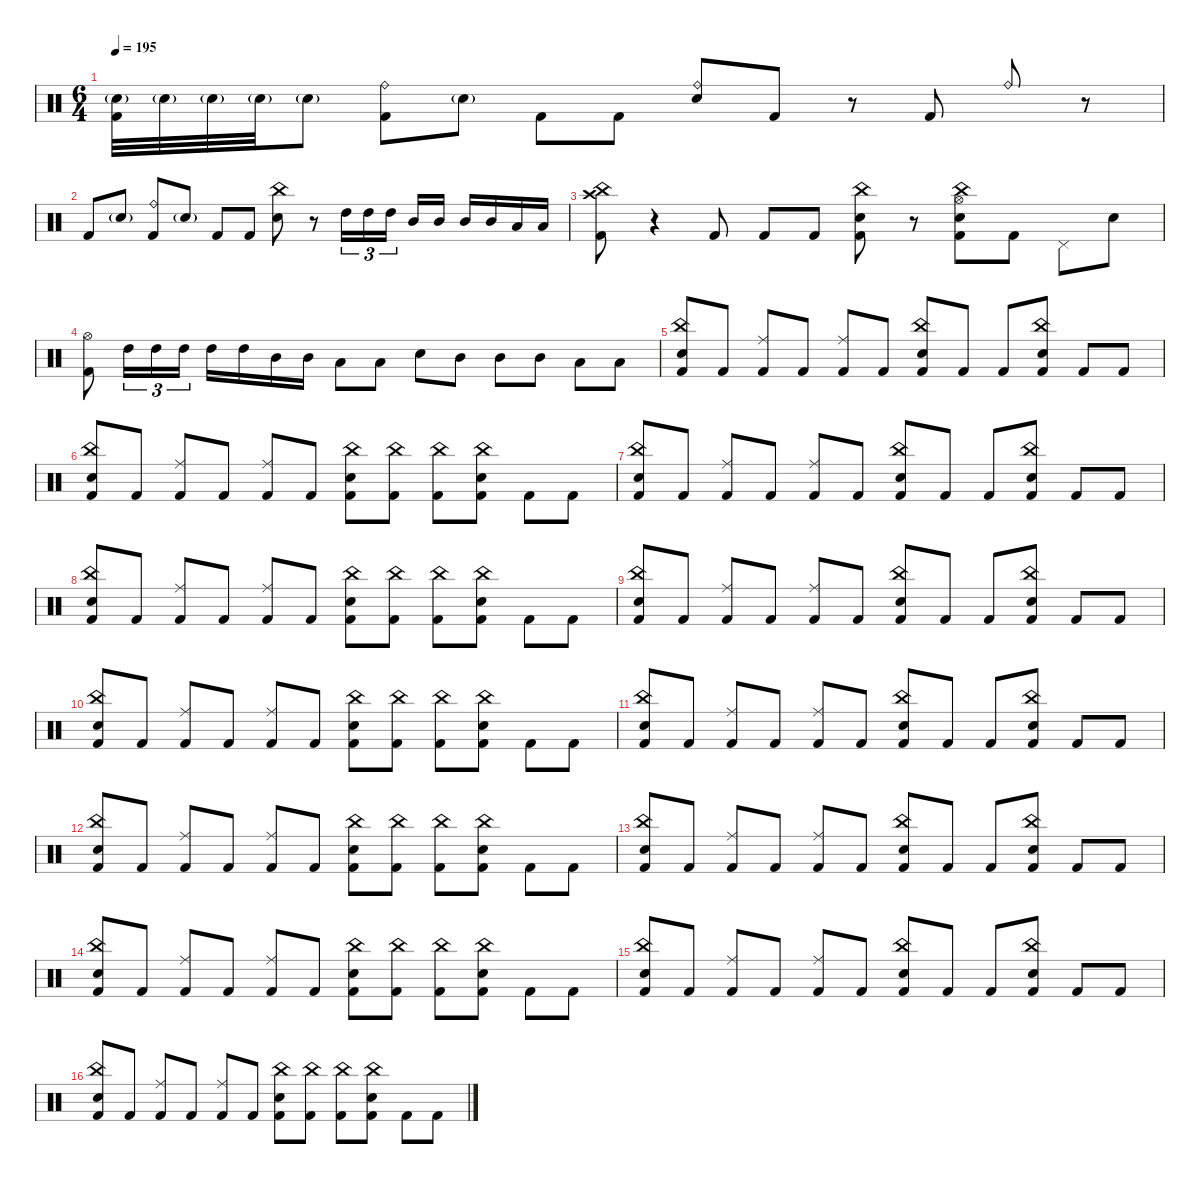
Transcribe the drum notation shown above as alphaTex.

\defaultSystemsLayout 4
\hideDynamics
\bracketExtendMode nobrackets
\singleTrackTrackNamePolicy hidden
\multiTrackTrackNamePolicy hidden
\firstSystemTrackNameMode fullname
\firstSystemTrackNameOrientation horizontal
\otherSystemsTrackNameOrientation horizontal
\track ("Drums" "drm.") {instrument percussion}
\staff {score}
\articulation defaults
\ts (6 4)
\tempo 195
\clef neutral
\ks c
("Snare (hit) 2"{g} "Kick (hit) 2").32{dy f beam Down} "Snare (hit) 2"{g}.32{dy mf beam Down} "Snare (hit) 2"{g}.32{beam Down} "Snare (hit) 2"{g}.32{beam Down} "Snare (hit) 2"{g}.8{beam Down} ("Ride (bell)" "Kick (hit) 2").8{dy f beam Down} "Snare (hit) 2"{g}.8{dy mf beam Down} "Kick (hit) 2".8{dy f beam Down} "Kick (hit) 2".8{beam Down} ("Ride (bell)" "Snare (hit) 2").8{beam Up} "Kick (hit) 2".8{beam Up} r.8{beam Up} "Kick (hit) 2".8{beam Up} "Ride (bell)".8{beam Up} r.8{beam Up} |
"Kick (hit) 2".8{beam Up} "Snare (hit) 2"{g}.8{dy mf beam Up} ("Ride (bell)" "Kick (hit) 2").8{dy f beam Up} "Snare (hit) 2"{g}.8{dy mf beam Up} "Kick (hit) 2".8{dy f beam Up} "Kick (hit) 2".8{beam Up} ("China (hit)" "Snare (hit) 2").8{beam Down} r.8{beam Down} "High Tom (hit)".16{tu (3 2) beam Down} "High Tom (hit)".16{tu (3 2) beam Down} "High Tom (hit)".16{tu (3 2) beam Down} "Mid Tom (hit)".16{beam Up} "Mid Tom (hit)".16{beam Up} "Mid Tom (hit)".16{beam Up} "Mid Tom (hit)".16{beam Up} "Low Tom (hit)".16{beam Up} "Low Tom (hit)".16{beam Up} |
("China (hit)" "Crash high (hit)" "Kick (hit) 2").8{beam Down} r.4{beam Down} "Kick (hit) 2".8{beam Up} "Kick (hit) 2".8{beam Up} "Kick (hit) 2".8{beam Up} ("China (hit)" "Snare (hit) 2" "Kick (hit) 2").8{beam Down} r.8{beam Down} ("China (hit)" "Hi-Hat (open)" "Snare (hit) 2" "Kick (hit) 2").8{beam Down} "Kick (hit) 2".8{beam Down} "Pedal Hi-Hat (hit)".8{beam Down} "Snare (hit) 2".8{beam Down} |
("Hi-Hat (open)" "Kick (hit) 2").8{beam Down} "High Tom (hit)".16{tu (3 2) beam Down} "High Tom (hit)".16{tu (3 2) beam Down} "High Tom (hit)".16{tu (3 2) beam Down} "High Tom (hit)".16{beam Down} "High Tom (hit)".16{beam Down} "Mid Tom (hit)".16{beam Down} "Mid Tom (hit)".16{beam Down} "Low Tom (hit)".8{beam Down} "Low Tom (hit)".8{beam Down} "Snare (hit) 2".8{beam Down} "Mid Tom (hit)".8{beam Down} "Mid Tom (hit)".8{beam Down} "Mid Tom (hit)".8{beam Down} "Low Tom (hit)".8{beam Down} "Low Tom (hit)".8{beam Down} |
("China (hit)" "Snare (hit) 2" "Kick (hit) 2").8{beam Up} "Kick (hit) 2".8{beam Up} ("Ride (middle)" "Kick (hit) 2").8{beam Up} "Kick (hit) 2".8{beam Up} ("Ride (middle)" "Kick (hit) 2").8{beam Up} "Kick (hit) 2".8{beam Up} ("China (hit)" "Snare (hit) 2" "Kick (hit) 2").8{beam Up} "Kick (hit) 2".8{beam Up} "Kick (hit) 2".8{beam Up} ("China (hit)" "Snare (hit) 2" "Kick (hit) 2").8{beam Up} "Kick (hit) 2".8{beam Up} "Kick (hit) 2".8{beam Up} |
("China (hit)" "Snare (hit) 2" "Kick (hit) 2").8{beam Up} "Kick (hit) 2".8{beam Up} ("Ride (middle)" "Kick (hit) 2").8{beam Up} "Kick (hit) 2".8{beam Up} ("Ride (middle)" "Kick (hit) 2").8{beam Up} "Kick (hit) 2".8{beam Up} ("China (hit)" "Snare (hit) 2" "Kick (hit) 2").8{beam Down} ("China (hit)" "Kick (hit) 2").8{beam Down} ("China (hit)" "Kick (hit) 2").8{beam Down} ("China (hit)" "Snare (hit) 2" "Kick (hit) 2").8{beam Down} "Kick (hit) 2".8{beam Down} "Kick (hit) 2".8{beam Down} |
("China (hit)" "Snare (hit) 2" "Kick (hit) 2").8{beam Up} "Kick (hit) 2".8{beam Up} ("Ride (middle)" "Kick (hit) 2").8{beam Up} "Kick (hit) 2".8{beam Up} ("Ride (middle)" "Kick (hit) 2").8{beam Up} "Kick (hit) 2".8{beam Up} ("China (hit)" "Snare (hit) 2" "Kick (hit) 2").8{beam Up} "Kick (hit) 2".8{beam Up} "Kick (hit) 2".8{beam Up} ("China (hit)" "Snare (hit) 2" "Kick (hit) 2").8{beam Up} "Kick (hit) 2".8{beam Up} "Kick (hit) 2".8{beam Up} |
("China (hit)" "Snare (hit) 2" "Kick (hit) 2").8{beam Up} "Kick (hit) 2".8{beam Up} ("Ride (middle)" "Kick (hit) 2").8{beam Up} "Kick (hit) 2".8{beam Up} ("Ride (middle)" "Kick (hit) 2").8{beam Up} "Kick (hit) 2".8{beam Up} ("China (hit)" "Snare (hit) 2" "Kick (hit) 2").8{beam Down} ("China (hit)" "Kick (hit) 2").8{beam Down} ("China (hit)" "Kick (hit) 2").8{beam Down} ("China (hit)" "Snare (hit) 2" "Kick (hit) 2").8{beam Down} "Kick (hit) 2".8{beam Down} "Kick (hit) 2".8{beam Down} |
("China (hit)" "Snare (hit) 2" "Kick (hit) 2").8{beam Up} "Kick (hit) 2".8{beam Up} ("Ride (middle)" "Kick (hit) 2").8{beam Up} "Kick (hit) 2".8{beam Up} ("Ride (middle)" "Kick (hit) 2").8{beam Up} "Kick (hit) 2".8{beam Up} ("China (hit)" "Snare (hit) 2" "Kick (hit) 2").8{beam Up} "Kick (hit) 2".8{beam Up} "Kick (hit) 2".8{beam Up} ("China (hit)" "Snare (hit) 2" "Kick (hit) 2").8{beam Up} "Kick (hit) 2".8{beam Up} "Kick (hit) 2".8{beam Up} |
("China (hit)" "Snare (hit) 2" "Kick (hit) 2").8{beam Up} "Kick (hit) 2".8{beam Up} ("Ride (middle)" "Kick (hit) 2").8{beam Up} "Kick (hit) 2".8{beam Up} ("Ride (middle)" "Kick (hit) 2").8{beam Up} "Kick (hit) 2".8{beam Up} ("China (hit)" "Snare (hit) 2" "Kick (hit) 2").8{beam Down} ("China (hit)" "Kick (hit) 2").8{beam Down} ("China (hit)" "Kick (hit) 2").8{beam Down} ("China (hit)" "Snare (hit) 2" "Kick (hit) 2").8{beam Down} "Kick (hit) 2".8{beam Down} "Kick (hit) 2".8{beam Down} |
("China (hit)" "Snare (hit) 2" "Kick (hit) 2").8{beam Up} "Kick (hit) 2".8{beam Up} ("Ride (middle)" "Kick (hit) 2").8{beam Up} "Kick (hit) 2".8{beam Up} ("Ride (middle)" "Kick (hit) 2").8{beam Up} "Kick (hit) 2".8{beam Up} ("China (hit)" "Snare (hit) 2" "Kick (hit) 2").8{beam Up} "Kick (hit) 2".8{beam Up} "Kick (hit) 2".8{beam Up} ("China (hit)" "Snare (hit) 2" "Kick (hit) 2").8{beam Up} "Kick (hit) 2".8{beam Up} "Kick (hit) 2".8{beam Up} |
("China (hit)" "Snare (hit) 2" "Kick (hit) 2").8{beam Up} "Kick (hit) 2".8{beam Up} ("Ride (middle)" "Kick (hit) 2").8{beam Up} "Kick (hit) 2".8{beam Up} ("Ride (middle)" "Kick (hit) 2").8{beam Up} "Kick (hit) 2".8{beam Up} ("China (hit)" "Snare (hit) 2" "Kick (hit) 2").8{beam Down} ("China (hit)" "Kick (hit) 2").8{beam Down} ("China (hit)" "Kick (hit) 2").8{beam Down} ("China (hit)" "Snare (hit) 2" "Kick (hit) 2").8{beam Down} "Kick (hit) 2".8{beam Down} "Kick (hit) 2".8{beam Down} |
("China (hit)" "Snare (hit) 2" "Kick (hit) 2").8{beam Up} "Kick (hit) 2".8{beam Up} ("Ride (middle)" "Kick (hit) 2").8{beam Up} "Kick (hit) 2".8{beam Up} ("Ride (middle)" "Kick (hit) 2").8{beam Up} "Kick (hit) 2".8{beam Up} ("China (hit)" "Snare (hit) 2" "Kick (hit) 2").8{beam Up} "Kick (hit) 2".8{beam Up} "Kick (hit) 2".8{beam Up} ("China (hit)" "Snare (hit) 2" "Kick (hit) 2").8{beam Up} "Kick (hit) 2".8{beam Up} "Kick (hit) 2".8{beam Up} |
("China (hit)" "Snare (hit) 2" "Kick (hit) 2").8{beam Up} "Kick (hit) 2".8{beam Up} ("Ride (middle)" "Kick (hit) 2").8{beam Up} "Kick (hit) 2".8{beam Up} ("Ride (middle)" "Kick (hit) 2").8{beam Up} "Kick (hit) 2".8{beam Up} ("China (hit)" "Snare (hit) 2" "Kick (hit) 2").8{beam Down} ("China (hit)" "Kick (hit) 2").8{beam Down} ("China (hit)" "Kick (hit) 2").8{beam Down} ("China (hit)" "Snare (hit) 2" "Kick (hit) 2").8{beam Down} "Kick (hit) 2".8{beam Down} "Kick (hit) 2".8{beam Down} |
("China (hit)" "Snare (hit) 2" "Kick (hit) 2").8{beam Up} "Kick (hit) 2".8{beam Up} ("Ride (middle)" "Kick (hit) 2").8{beam Up} "Kick (hit) 2".8{beam Up} ("Ride (middle)" "Kick (hit) 2").8{beam Up} "Kick (hit) 2".8{beam Up} ("China (hit)" "Snare (hit) 2" "Kick (hit) 2").8{beam Up} "Kick (hit) 2".8{beam Up} "Kick (hit) 2".8{beam Up} ("China (hit)" "Snare (hit) 2" "Kick (hit) 2").8{beam Up} "Kick (hit) 2".8{beam Up} "Kick (hit) 2".8{beam Up} |
("China (hit)" "Snare (hit) 2" "Kick (hit) 2").8{beam Up} "Kick (hit) 2".8{beam Up} ("Ride (middle)" "Kick (hit) 2").8{beam Up} "Kick (hit) 2".8{beam Up} ("Ride (middle)" "Kick (hit) 2").8{beam Up} "Kick (hit) 2".8{beam Up} ("China (hit)" "Snare (hit) 2" "Kick (hit) 2").8{beam Down} ("China (hit)" "Kick (hit) 2").8{beam Down} ("China (hit)" "Kick (hit) 2").8{beam Down} ("China (hit)" "Snare (hit) 2" "Kick (hit) 2").8{beam Down} "Kick (hit) 2".8{beam Down} "Kick (hit) 2".8{beam Down}
